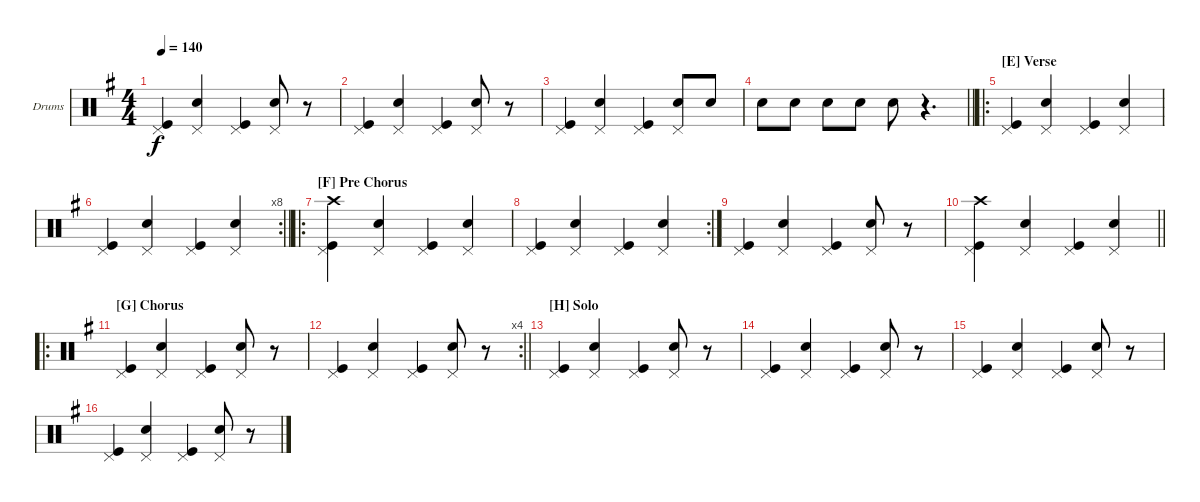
\bracketExtendMode groupsimilarinstruments
\firstSystemTrackNameOrientation horizontal
\otherSystemsTrackNameOrientation horizontal
\track ("Drumkit" "Drums") {instrument percussion}
\staff {score}
\articulation defaults
\ts (4 4)
\tempo 140
\clef neutral
\scale
1.04288
\ks g
("Kick (hit)" "Pedal Hi-Hat (hit)").4{dy f} ("Snare (hit) 2" "Pedal Hi-Hat (hit)").4 ("Kick (hit)" "Pedal Hi-Hat (hit)").4 ("Snare (hit) 2" "Pedal Hi-Hat (hit)").8 r.8 |
\scale
0.957125 ("Kick (hit)" "Pedal Hi-Hat (hit)").4 ("Snare (hit) 2" "Pedal Hi-Hat (hit)").4 ("Kick (hit)" "Pedal Hi-Hat (hit)").4 ("Snare (hit) 2" "Pedal Hi-Hat (hit)").8 r.8 |
\scale
1.04288 ("Kick (hit)" "Pedal Hi-Hat (hit)").4 ("Snare (hit) 2" "Pedal Hi-Hat (hit)").4 ("Kick (hit)" "Pedal Hi-Hat (hit)").4 ("Snare (hit) 2" "Pedal Hi-Hat (hit)").8 "Snare (hit) 2".8 |
\scale
0.957125
\barLineRight lightlight "Snare (hit) 2".8 "Snare (hit) 2".8 "Snare (hit) 2".8 "Snare (hit) 2".8 "Snare (hit) 2".8
r.4{d} |
\ro
\section ("E" "Verse")
\scale
1.04288 ("Kick (hit)" "Pedal Hi-Hat (hit)").4 ("Snare (hit) 2" "Pedal Hi-Hat (hit)").4 ("Kick (hit)" "Pedal Hi-Hat (hit)").4 ("Snare (hit) 2" "Pedal Hi-Hat (hit)").4 |
\rc 8
\scale
0.957125
\barLineRight lightlight
("Kick (hit)" "Pedal Hi-Hat (hit)").4 ("Snare (hit) 2" "Pedal Hi-Hat (hit)").4 ("Kick (hit)" "Pedal Hi-Hat (hit)").4 ("Snare (hit) 2" "Pedal Hi-Hat (hit)").4 |
\ro
\section ("F" "Pre Chorus")
\scale
1.04288 ("Kick (hit)" "Pedal Hi-Hat (hit)" "Crash high (hit)").4 ("Snare (hit) 2" "Pedal Hi-Hat (hit)").4 ("Kick (hit)" "Pedal Hi-Hat (hit)").4 ("Snare (hit) 2" "Pedal Hi-Hat (hit)").4 |
\rc 2
\scale
0.957125 ("Kick (hit)" "Pedal Hi-Hat (hit)").4 ("Snare (hit) 2" "Pedal Hi-Hat (hit)").4 ("Kick (hit)" "Pedal Hi-Hat (hit)").4 ("Snare (hit) 2" "Pedal Hi-Hat (hit)").4 |
\scale
1.04288 ("Kick (hit)" "Pedal Hi-Hat (hit)").4 ("Snare (hit) 2" "Pedal Hi-Hat (hit)").4 ("Kick (hit)" "Pedal Hi-Hat (hit)").4 ("Snare (hit) 2" "Pedal Hi-Hat (hit)").8 r.8 |
\scale
0.957125
\barLineRight lightlight
("Kick (hit)" "Pedal Hi-Hat (hit)" "Crash high (hit)").4 ("Snare (hit) 2" "Pedal Hi-Hat (hit)").4 ("Kick (hit)" "Pedal Hi-Hat (hit)").4 ("Snare (hit) 2" "Pedal Hi-Hat (hit)").4 |
\ro
\section ("G" "Chorus")
\scale
1.04288 ("Kick (hit)" "Pedal Hi-Hat (hit)").4 ("Snare (hit) 2" "Pedal Hi-Hat (hit)").4 ("Kick (hit)" "Pedal Hi-Hat (hit)").4 ("Snare (hit) 2" "Pedal Hi-Hat (hit)").8 r.8 |
\rc 4
\scale
0.957125
\barLineRight lightlight
("Kick (hit)" "Pedal Hi-Hat (hit)").4 ("Snare (hit) 2" "Pedal Hi-Hat (hit)").4 ("Kick (hit)" "Pedal Hi-Hat (hit)").4 ("Snare (hit) 2" "Pedal Hi-Hat (hit)").8 r.8 |
\section ("H" "Solo")
\scale
1.04288 ("Kick (hit)" "Pedal Hi-Hat (hit)").4 ("Snare (hit) 2" "Pedal Hi-Hat (hit)").4 ("Kick (hit)" "Pedal Hi-Hat (hit)").4 ("Snare (hit) 2" "Pedal Hi-Hat (hit)").8 r.8 |
\scale
0.957125 ("Kick (hit)" "Pedal Hi-Hat (hit)").4 ("Snare (hit) 2" "Pedal Hi-Hat (hit)").4 ("Kick (hit)" "Pedal Hi-Hat (hit)").4 ("Snare (hit) 2" "Pedal Hi-Hat (hit)").8 r.8 |
\scale
1.04288 ("Kick (hit)" "Pedal Hi-Hat (hit)").4 ("Snare (hit) 2" "Pedal Hi-Hat (hit)").4 ("Kick (hit)" "Pedal Hi-Hat (hit)").4 ("Snare (hit) 2" "Pedal Hi-Hat (hit)").8 r.8 |
\scale
0.957125 ("Kick (hit)" "Pedal Hi-Hat (hit)").4 ("Snare (hit) 2" "Pedal Hi-Hat (hit)").4 ("Kick (hit)" "Pedal Hi-Hat (hit)").4 ("Snare (hit) 2" "Pedal Hi-Hat (hit)").8 r.8
